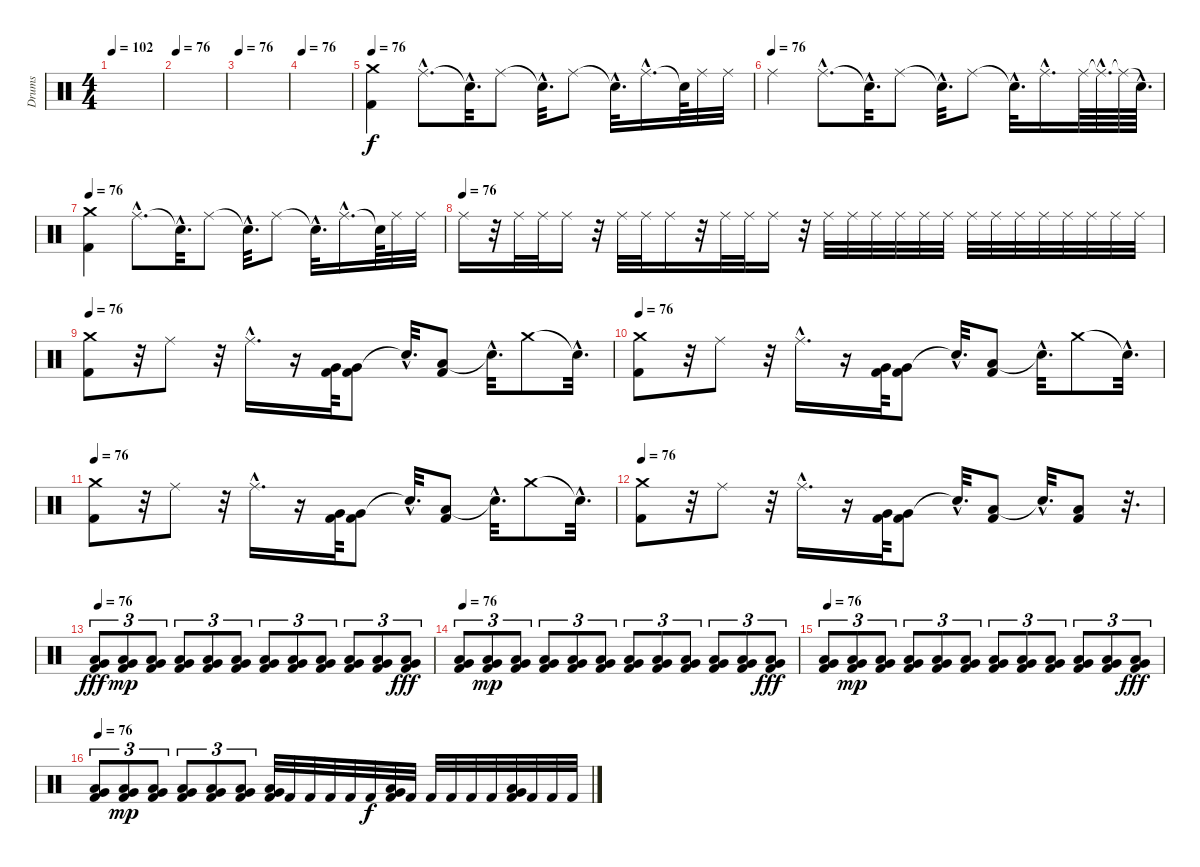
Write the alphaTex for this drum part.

\track ("Drums" "Drums") {instrument percussion}
\staff {score}
\articulation defaults
\ts (4 4)
\tempo 102
\tempo 76
\tempo 102
\clef neutral
\ks c
|
\tempo 76
|
\tempo 76
|
\tempo 76
|
\tempo 76
("Crash medium (hit)" "Kick (hit) 2").4 "Ride (middle)"{hac}.8{d} "Snare (hit)"{hac t}.32{d} "Ride (middle)".8 "Snare (hit)"{hac t}.32{d} "Ride (middle)".8 "Snare (hit)"{hac t}.32{d} "Ride (middle)"{hac}.16{d} "Snare (hit)"{t}.64 "Ride (middle)".32 "Ride (middle)".32 |
\tempo (76)
"Ride (middle)".4 "Ride (middle)"{hac}.8{d} "Snare (hit)"{hac t}.32{d} "Ride (middle)".8 "Snare (hit)"{hac t}.32{d} "Ride (middle)".8 "Snare (hit)"{hac t}.32{d} "Ride (middle)"{hac}.16{d} "Ride (middle)".64 "Ride (middle)"{hac t}.64{d} "Ride (middle)"{t}.64 "Snare (hit)"{hac t}.64{d} |
\tempo 76
("Crash medium (hit)" "Kick (hit) 2").4 "Ride (middle)"{hac}.8{d} "Snare (hit)"{hac t}.32{d} "Ride (middle)".8 "Snare (hit)"{hac t}.32{d} "Ride (middle)".8 "Snare (hit)"{hac t}.32{d} "Ride (middle)"{hac}.16{d} "Snare (hit)"{t}.64 "Ride (middle)".32 "Ride (middle)".32 |
\tempo (76)
"Ride (middle)".16 r.32 "Ride (middle)".32 "Ride (middle)".32 "Ride (middle)".16 r.32 "Ride (middle)".32 "Ride (middle)".32 "Ride (middle)".16 r.32 "Ride (middle)".32 "Ride (middle)".32 "Ride (middle)".16 r.32 "Ride (middle)".32 "Ride (middle)".32 "Ride (middle)".32 "Ride (middle)".32 "Ride (middle)".32 "Ride (middle)".32 "Ride (middle)".32 "Ride (middle)".32 "Ride (middle)".32 "Ride (middle)".32 "Ride (middle)".32 "Ride (middle)".32 "Ride (middle)".32 "Ride (middle)".32 |
\tempo 76
("Crash medium (hit)" "Kick (hit) 2").8 r.32 "Ride (middle)".8 r.32 "Ride (middle)"{hac}.16{d} r.16 ("Very Low Tom (hit)" "Kick (hit) 2").64 ("Very Low Tom (hit)" "Kick (hit) 2").8 "Snare (hit)"{hac t}.32{d} ("Low Floor Tom (hit)" "Kick (hit) 2").8 "Snare (hit)"{hac t}.32{d} "Crash medium (hit)".8 "Snare (hit)"{hac t}.32{d} |
\tempo 76
("Crash medium (hit)" "Kick (hit) 2").8 r.32 "Ride (middle)".8 r.32 "Ride (middle)"{hac}.16{d} r.16 ("Very Low Tom (hit)" "Kick (hit) 2").64 ("Very Low Tom (hit)" "Kick (hit) 2").8 "Snare (hit)"{hac t}.32{d} ("Low Floor Tom (hit)" "Kick (hit) 2").8 "Snare (hit)"{hac t}.32{d} "Crash medium (hit)".8 "Snare (hit)"{hac t}.32{d} |
\tempo 76
("Crash medium (hit)" "Kick (hit) 2").8 r.32 "Ride (middle)".8 r.32 "Ride (middle)"{hac}.16{d} r.16 ("Very Low Tom (hit)" "Kick (hit) 2").64 ("Very Low Tom (hit)" "Kick (hit) 2").8 "Snare (hit)"{hac t}.32{d} ("Low Floor Tom (hit)" "Kick (hit) 2").8 "Snare (hit)"{hac t}.32{d} "Crash medium (hit)".8 "Snare (hit)"{hac t}.32{d} |
\tempo 76
("Crash medium (hit)" "Kick (hit) 2").8 r.32 "Ride (middle)".8 r.32 "Ride (middle)"{hac}.16{d} r.16 ("Very Low Tom (hit)" "Kick (hit) 2").64 ("Very Low Tom (hit)" "Kick (hit) 2").8 "Snare (hit)"{hac t}.32{d} ("Low Floor Tom (hit)" "Kick (hit) 2").8 "Snare (hit)"{hac t}.32{d} ("Low Floor Tom (hit)" "Kick (hit) 2").8 r.32{d} |
\tempo 76
("Very Low Tom (hit)" "Low Floor Tom (hit)" "Kick (hit) 2").8{tu (3 2) dy fff} ("Very Low Tom (hit)" "Low Floor Tom (hit)" "Kick (hit) 2").8{tu (3 2) dy mp} ("Very Low Tom (hit)" "Low Floor Tom (hit)" "Kick (hit) 2").8{tu (3 2)} ("Very Low Tom (hit)" "Low Floor Tom (hit)" "Kick (hit) 2").8{tu (3 2)} ("Very Low Tom (hit)" "Low Floor Tom (hit)" "Kick (hit) 2").8{tu (3 2)} ("Very Low Tom (hit)" "Low Floor Tom (hit)" "Kick (hit) 2").8{tu (3 2)} ("Very Low Tom (hit)" "Low Floor Tom (hit)" "Kick (hit) 2").8{tu (3 2)} ("Very Low Tom (hit)" "Low Floor Tom (hit)" "Kick (hit) 2").8{tu (3 2)} ("Very Low Tom (hit)" "Low Floor Tom (hit)" "Kick (hit) 2").8{tu (3 2)} ("Very Low Tom (hit)" "Low Floor Tom (hit)" "Kick (hit) 2").8{tu (3 2)} ("Very Low Tom (hit)" "Low Floor Tom (hit)" "Kick (hit) 2").8{tu (3 2)} ("Very Low Tom (hit)" "Low Floor Tom (hit)" "Kick (hit) 2").8{tu (3 2) dy fff} |
\tempo 76
("Very Low Tom (hit)" "Low Floor Tom (hit)" "Kick (hit) 2").8{tu (3 2)} ("Very Low Tom (hit)" "Low Floor Tom (hit)" "Kick (hit) 2").8{tu (3 2) dy mp} ("Very Low Tom (hit)" "Low Floor Tom (hit)" "Kick (hit) 2").8{tu (3 2)} ("Very Low Tom (hit)" "Low Floor Tom (hit)" "Kick (hit) 2").8{tu (3 2)} ("Very Low Tom (hit)" "Low Floor Tom (hit)" "Kick (hit) 2").8{tu (3 2)} ("Very Low Tom (hit)" "Low Floor Tom (hit)" "Kick (hit) 2").8{tu (3 2)} ("Very Low Tom (hit)" "Low Floor Tom (hit)" "Kick (hit) 2").8{tu (3 2)} ("Very Low Tom (hit)" "Low Floor Tom (hit)" "Kick (hit) 2").8{tu (3 2)} ("Very Low Tom (hit)" "Low Floor Tom (hit)" "Kick (hit) 2").8{tu (3 2)} ("Very Low Tom (hit)" "Low Floor Tom (hit)" "Kick (hit) 2").8{tu (3 2)} ("Very Low Tom (hit)" "Low Floor Tom (hit)" "Kick (hit) 2").8{tu (3 2)} ("Very Low Tom (hit)" "Low Floor Tom (hit)" "Kick (hit) 2").8{tu (3 2) dy fff} |
\tempo 76
("Very Low Tom (hit)" "Low Floor Tom (hit)" "Kick (hit) 2").8{tu (3 2)} ("Very Low Tom (hit)" "Low Floor Tom (hit)" "Kick (hit) 2").8{tu (3 2) dy mp} ("Very Low Tom (hit)" "Low Floor Tom (hit)" "Kick (hit) 2").8{tu (3 2)} ("Very Low Tom (hit)" "Low Floor Tom (hit)" "Kick (hit) 2").8{tu (3 2)} ("Very Low Tom (hit)" "Low Floor Tom (hit)" "Kick (hit) 2").8{tu (3 2)} ("Very Low Tom (hit)" "Low Floor Tom (hit)" "Kick (hit) 2").8{tu (3 2)} ("Very Low Tom (hit)" "Low Floor Tom (hit)" "Kick (hit) 2").8{tu (3 2)} ("Very Low Tom (hit)" "Low Floor Tom (hit)" "Kick (hit) 2").8{tu (3 2)} ("Very Low Tom (hit)" "Low Floor Tom (hit)" "Kick (hit) 2").8{tu (3 2)} ("Very Low Tom (hit)" "Low Floor Tom (hit)" "Kick (hit) 2").8{tu (3 2)} ("Very Low Tom (hit)" "Low Floor Tom (hit)" "Kick (hit) 2").8{tu (3 2)} ("Very Low Tom (hit)" "Low Floor Tom (hit)" "Kick (hit) 2").8{tu (3 2) dy fff} |
\tempo 76
("Very Low Tom (hit)" "Low Floor Tom (hit)" "Kick (hit) 2").8{tu (3 2)} ("Very Low Tom (hit)" "Low Floor Tom (hit)" "Kick (hit) 2").8{tu (3 2) dy mp} ("Very Low Tom (hit)" "Low Floor Tom (hit)" "Kick (hit) 2").8{tu (3 2)} ("Very Low Tom (hit)" "Low Floor Tom (hit)" "Kick (hit) 2").8{tu (3 2)} ("Very Low Tom (hit)" "Low Floor Tom (hit)" "Kick (hit) 2").8{tu (3 2)} ("Very Low Tom (hit)" "Low Floor Tom (hit)" "Kick (hit) 2").8{tu (3 2)} ("Very Low Tom (hit)" "Low Floor Tom (hit)" "Kick (hit) 2").32 "Kick (hit) 2".32 "Kick (hit) 2".32 "Kick (hit) 2".32 "Kick (hit) 2".32 "Kick (hit) 2".32{dy f} ("Very Low Tom (hit)" "Low Floor Tom (hit)" "Kick (hit) 2").32 "Kick (hit) 2".32 "Kick (hit) 2".32 "Kick (hit) 2".32 "Kick (hit) 2".32 "Kick (hit) 2".32 ("Very Low Tom (hit)" "Low Floor Tom (hit)" "Kick (hit) 2").32 "Kick (hit) 2".32 "Kick (hit) 2".32 "Kick (hit) 2".32
